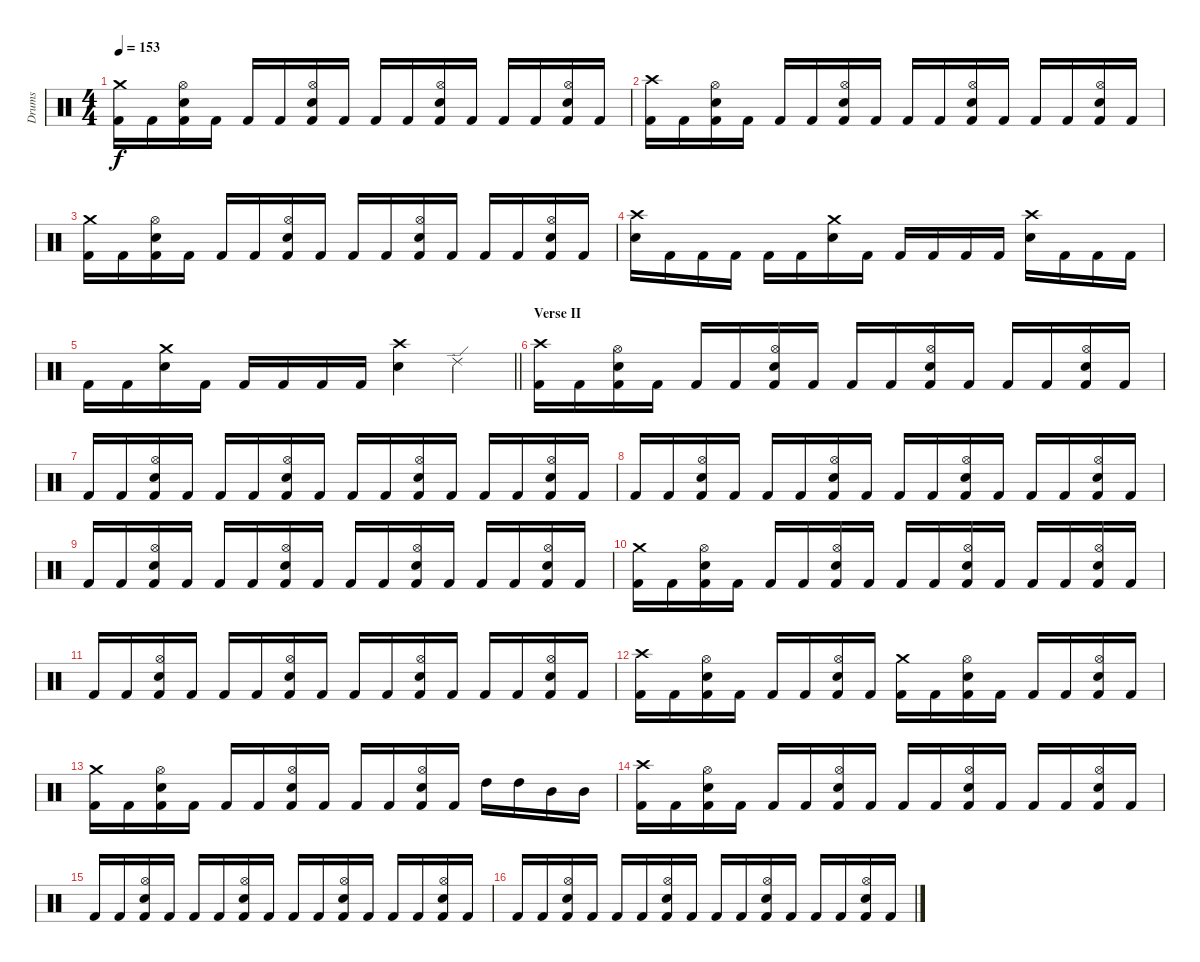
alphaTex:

\track ("Drums" "Drums") {instrument percussion}
\staff {score}
\articulation defaults
\ts (4 4)
\tempo 153
\clef neutral
\ks c
("Crash medium (hit)" "Kick (hit) 2").16{dy f} "Kick (hit) 2".16 ("Hi-Hat (open)" "Snare (hit) 2" "Kick (hit) 2").16 "Kick (hit) 2".16 "Kick (hit) 2".16 "Kick (hit) 2".16 ("Hi-Hat (open)" "Snare (hit) 2" "Kick (hit) 2").16 "Kick (hit) 2".16 "Kick (hit) 2".16 "Kick (hit) 2".16 ("Hi-Hat (open)" "Snare (hit) 2" "Kick (hit) 2").16 "Kick (hit) 2".16 "Kick (hit) 2".16 "Kick (hit) 2".16 ("Hi-Hat (open)" "Snare (hit) 2" "Kick (hit) 2").16 "Kick (hit) 2".16 |
("Crash high (hit)" "Kick (hit) 2").16 "Kick (hit) 2".16 ("Hi-Hat (open)" "Snare (hit) 2" "Kick (hit) 2").16 "Kick (hit) 2".16 "Kick (hit) 2".16 "Kick (hit) 2".16 ("Hi-Hat (open)" "Snare (hit) 2" "Kick (hit) 2").16 "Kick (hit) 2".16 "Kick (hit) 2".16 "Kick (hit) 2".16 ("Hi-Hat (open)" "Snare (hit) 2" "Kick (hit) 2").16 "Kick (hit) 2".16 "Kick (hit) 2".16 "Kick (hit) 2".16 ("Hi-Hat (open)" "Snare (hit) 2" "Kick (hit) 2").16 "Kick (hit) 2".16 |
("Crash medium (hit)" "Kick (hit) 2").16 "Kick (hit) 2".16 ("Hi-Hat (open)" "Snare (hit) 2" "Kick (hit) 2").16 "Kick (hit) 2".16 "Kick (hit) 2".16 "Kick (hit) 2".16 ("Hi-Hat (open)" "Snare (hit) 2" "Kick (hit) 2").16 "Kick (hit) 2".16 "Kick (hit) 2".16 "Kick (hit) 2".16 ("Hi-Hat (open)" "Snare (hit) 2" "Kick (hit) 2").16 "Kick (hit) 2".16 "Kick (hit) 2".16 "Kick (hit) 2".16 ("Hi-Hat (open)" "Snare (hit) 2" "Kick (hit) 2").16 "Kick (hit) 2".16 |
("Crash high (hit)" "Snare (hit) 2").16 "Kick (hit) 2".16 "Kick (hit) 2".16 "Kick (hit) 2".16 "Kick (hit) 2".16 "Kick (hit) 2".16 ("Crash medium (hit)" "Snare (hit) 2").16 "Kick (hit) 2".16 "Kick (hit) 2".16 "Kick (hit) 2".16 "Kick (hit) 2".16 "Kick (hit) 2".16 ("Crash high (hit)" "Snare (hit) 2").16 "Kick (hit) 2".16 "Kick (hit) 2".16 "Kick (hit) 2".16 |
\barLineRight lightlight "Kick (hit) 2".16 "Kick (hit) 2".16
("Crash medium (hit)" "Snare (hit) 2").16 "Kick (hit) 2".16 "Kick (hit) 2".16 "Kick (hit) 2".16 "Kick (hit) 2".16 "Kick (hit) 2".16 ("Crash high (hit)" "Snare (hit) 2").4 "Ride (edge) 2".4 |
\section ("" "Verse II")
("Crash high (hit)" "Kick (hit) 2").16 "Kick (hit) 2".16 ("Hi-Hat (open)" "Snare (hit) 2" "Kick (hit) 2").16 "Kick (hit) 2".16 "Kick (hit) 2".16 "Kick (hit) 2".16 ("Hi-Hat (open)" "Snare (hit) 2" "Kick (hit) 2").16 "Kick (hit) 2".16 "Kick (hit) 2".16 "Kick (hit) 2".16 ("Hi-Hat (open)" "Snare (hit) 2" "Kick (hit) 2").16 "Kick (hit) 2".16 "Kick (hit) 2".16 "Kick (hit) 2".16 ("Hi-Hat (open)" "Snare (hit) 2" "Kick (hit) 2").16 "Kick (hit) 2".16 |
"Kick (hit) 2".16 "Kick (hit) 2".16 ("Hi-Hat (open)" "Snare (hit) 2" "Kick (hit) 2").16 "Kick (hit) 2".16 "Kick (hit) 2".16 "Kick (hit) 2".16 ("Hi-Hat (open)" "Snare (hit) 2" "Kick (hit) 2").16 "Kick (hit) 2".16 "Kick (hit) 2".16 "Kick (hit) 2".16 ("Hi-Hat (open)" "Snare (hit) 2" "Kick (hit) 2").16 "Kick (hit) 2".16 "Kick (hit) 2".16 "Kick (hit) 2".16 ("Hi-Hat (open)" "Snare (hit) 2" "Kick (hit) 2").16 "Kick (hit) 2".16 |
"Kick (hit) 2".16 "Kick (hit) 2".16 ("Hi-Hat (open)" "Snare (hit) 2" "Kick (hit) 2").16 "Kick (hit) 2".16 "Kick (hit) 2".16 "Kick (hit) 2".16 ("Hi-Hat (open)" "Snare (hit) 2" "Kick (hit) 2").16 "Kick (hit) 2".16 "Kick (hit) 2".16 "Kick (hit) 2".16 ("Hi-Hat (open)" "Snare (hit) 2" "Kick (hit) 2").16 "Kick (hit) 2".16 "Kick (hit) 2".16 "Kick (hit) 2".16 ("Hi-Hat (open)" "Snare (hit) 2" "Kick (hit) 2").16 "Kick (hit) 2".16 |
"Kick (hit) 2".16 "Kick (hit) 2".16 ("Hi-Hat (open)" "Snare (hit) 2" "Kick (hit) 2").16 "Kick (hit) 2".16 "Kick (hit) 2".16 "Kick (hit) 2".16 ("Hi-Hat (open)" "Snare (hit) 2" "Kick (hit) 2").16 "Kick (hit) 2".16 "Kick (hit) 2".16 "Kick (hit) 2".16 ("Hi-Hat (open)" "Snare (hit) 2" "Kick (hit) 2").16 "Kick (hit) 2".16 "Kick (hit) 2".16 "Kick (hit) 2".16 ("Hi-Hat (open)" "Snare (hit) 2" "Kick (hit) 2").16 "Kick (hit) 2".16 |
("Crash medium (hit)" "Kick (hit) 2").16 "Kick (hit) 2".16 ("Hi-Hat (open)" "Snare (hit) 2" "Kick (hit) 2").16 "Kick (hit) 2".16 "Kick (hit) 2".16 "Kick (hit) 2".16 ("Hi-Hat (open)" "Snare (hit) 2" "Kick (hit) 2").16 "Kick (hit) 2".16 "Kick (hit) 2".16 "Kick (hit) 2".16 ("Hi-Hat (open)" "Snare (hit) 2" "Kick (hit) 2").16 "Kick (hit) 2".16 "Kick (hit) 2".16 "Kick (hit) 2".16 ("Hi-Hat (open)" "Snare (hit) 2" "Kick (hit) 2").16 "Kick (hit) 2".16 |
"Kick (hit) 2".16 "Kick (hit) 2".16 ("Hi-Hat (open)" "Snare (hit) 2" "Kick (hit) 2").16 "Kick (hit) 2".16 "Kick (hit) 2".16 "Kick (hit) 2".16 ("Hi-Hat (open)" "Snare (hit) 2" "Kick (hit) 2").16 "Kick (hit) 2".16 "Kick (hit) 2".16 "Kick (hit) 2".16 ("Hi-Hat (open)" "Snare (hit) 2" "Kick (hit) 2").16 "Kick (hit) 2".16 "Kick (hit) 2".16 "Kick (hit) 2".16 ("Hi-Hat (open)" "Snare (hit) 2" "Kick (hit) 2").16 "Kick (hit) 2".16 |
("Crash high (hit)" "Kick (hit) 2").16 "Kick (hit) 2".16 ("Hi-Hat (open)" "Snare (hit) 2" "Kick (hit) 2").16 "Kick (hit) 2".16 "Kick (hit) 2".16 "Kick (hit) 2".16 ("Hi-Hat (open)" "Snare (hit) 2" "Kick (hit) 2").16 "Kick (hit) 2".16 ("Crash medium (hit)" "Kick (hit) 2").16 "Kick (hit) 2".16 ("Hi-Hat (open)" "Snare (hit) 2" "Kick (hit) 2").16 "Kick (hit) 2".16 "Kick (hit) 2".16 "Kick (hit) 2".16 ("Hi-Hat (open)" "Snare (hit) 2" "Kick (hit) 2").16 "Kick (hit) 2".16 |
("Crash medium (hit)" "Kick (hit) 2").16 "Kick (hit) 2".16 ("Hi-Hat (open)" "Snare (hit) 2" "Kick (hit) 2").16 "Kick (hit) 2".16 "Kick (hit) 2".16 "Kick (hit) 2".16 ("Hi-Hat (open)" "Snare (hit) 2" "Kick (hit) 2").16 "Kick (hit) 2".16 "Kick (hit) 2".16 "Kick (hit) 2".16 ("Hi-Hat (open)" "Snare (hit) 2" "Kick (hit) 2").16 "Kick (hit) 2".16 "High Tom (hit)".16 "High Tom (hit)".16 "Mid Tom (hit)".16 "Mid Tom (hit)".16 |
("Crash high (hit)" "Kick (hit) 2").16 "Kick (hit) 2".16 ("Hi-Hat (open)" "Snare (hit) 2" "Kick (hit) 2").16 "Kick (hit) 2".16 "Kick (hit) 2".16 "Kick (hit) 2".16 ("Hi-Hat (open)" "Snare (hit) 2" "Kick (hit) 2").16 "Kick (hit) 2".16 "Kick (hit) 2".16 "Kick (hit) 2".16 ("Hi-Hat (open)" "Snare (hit) 2" "Kick (hit) 2").16 "Kick (hit) 2".16 "Kick (hit) 2".16 "Kick (hit) 2".16 ("Hi-Hat (open)" "Snare (hit) 2" "Kick (hit) 2").16 "Kick (hit) 2".16 |
"Kick (hit) 2".16 "Kick (hit) 2".16 ("Hi-Hat (open)" "Snare (hit) 2" "Kick (hit) 2").16 "Kick (hit) 2".16 "Kick (hit) 2".16 "Kick (hit) 2".16 ("Hi-Hat (open)" "Snare (hit) 2" "Kick (hit) 2").16 "Kick (hit) 2".16 "Kick (hit) 2".16 "Kick (hit) 2".16 ("Hi-Hat (open)" "Snare (hit) 2" "Kick (hit) 2").16 "Kick (hit) 2".16 "Kick (hit) 2".16 "Kick (hit) 2".16 ("Hi-Hat (open)" "Snare (hit) 2" "Kick (hit) 2").16 "Kick (hit) 2".16 |
"Kick (hit) 2".16 "Kick (hit) 2".16 ("Hi-Hat (open)" "Snare (hit) 2" "Kick (hit) 2").16 "Kick (hit) 2".16 "Kick (hit) 2".16 "Kick (hit) 2".16 ("Hi-Hat (open)" "Snare (hit) 2" "Kick (hit) 2").16 "Kick (hit) 2".16 "Kick (hit) 2".16 "Kick (hit) 2".16 ("Hi-Hat (open)" "Snare (hit) 2" "Kick (hit) 2").16 "Kick (hit) 2".16 "Kick (hit) 2".16 "Kick (hit) 2".16 ("Hi-Hat (open)" "Snare (hit) 2" "Kick (hit) 2").16 "Kick (hit) 2".16
